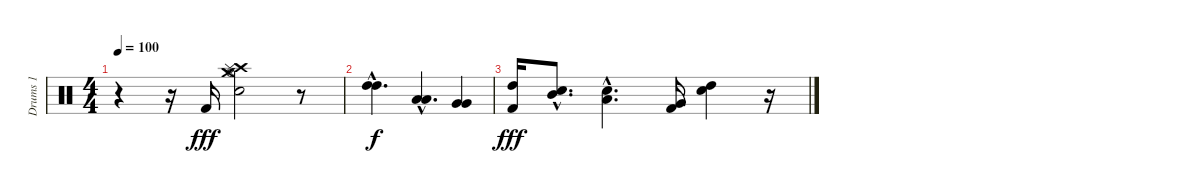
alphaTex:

\track ("Drums 1" "Drums 1") {instrument percussion}
\staff {score}
\articulation defaults
\ts (4 4)
\tempo 100
\clef neutral
\ks c
r.4{dy fff} r.16 "Kick (hit) 2".16 ("Snare (hit) 2" "Crash high (hit)" "Crash medium (hit)" "Splash (hit)" "Hi-Hat (open)").2 r.8 |
("High Tom (hit)"{hac} "High Tom (hit)"{hac}).4{d bu 240 dy f} ("Low Tom (hit)"{hac} "Low Tom (hit)"{hac}).4{d bu 240} ("Very Low Tom (hit)" "Very Low Tom (hit)").4{bu 240} |
("Kick (hit) 2" "High Tom (hit)").16{dy fff} ("Snare (hit) 2"{hac} "Mid Tom (hit)"{hac}).8{d} ("Snare (hit) 2"{hac} "Low Tom (hit)"{hac}).4{d} ("Kick (hit) 2" "Very Low Tom (hit)").16 ("Snare (hit) 2" "High Tom (hit)").4 r.16
